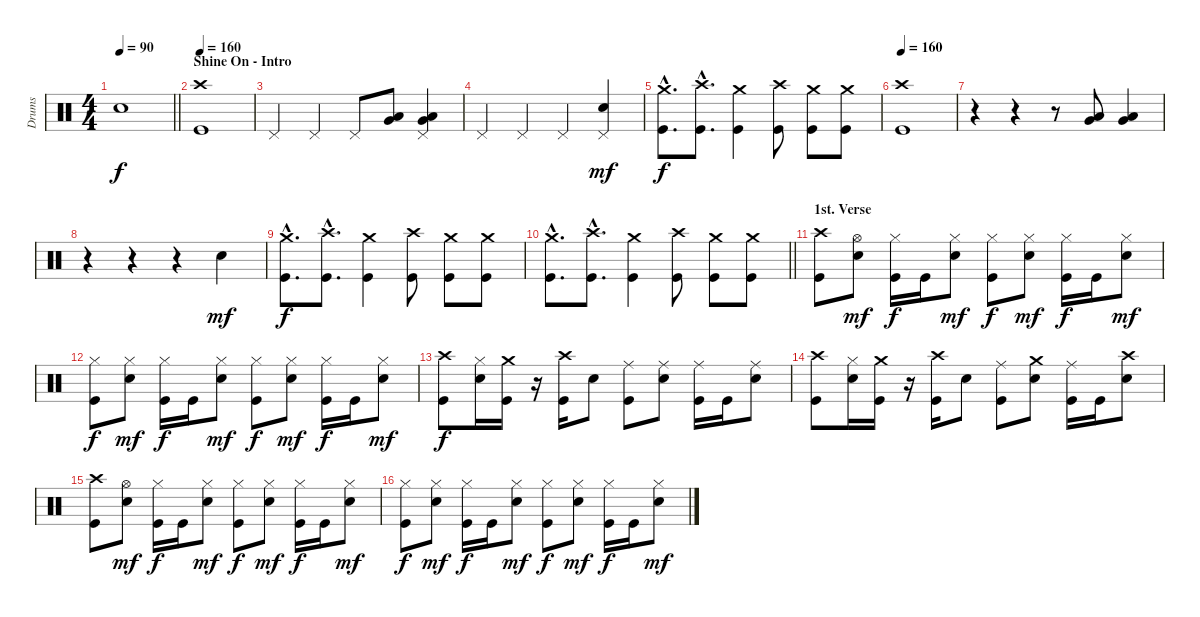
\track ("Drums" "Drums") {instrument percussion}
\staff {score}
\articulation defaults
\ts (4 4)
\tempo 90
\clef neutral
\barLineRight lightlight
\ks c "Snare (hit)"{t}.1{dy f}
|
\section ("" "Shine On - Intro")
\tempo 160
("Crash high (hit)" "Kick (hit)").1 |
"Pedal Hi-Hat (hit)".4 "Pedal Hi-Hat (hit)".4 "Pedal Hi-Hat (hit)".8 ("Low Tom (hit)" "Very Low Tom (hit)").8 ("Low Tom (hit)" "Very Low Tom (hit)" "Pedal Hi-Hat (hit)").4 |
"Pedal Hi-Hat (hit)".4 "Pedal Hi-Hat (hit)".4 "Pedal Hi-Hat (hit)".4 ("Snare (hit) 2" "Pedal Hi-Hat (hit)").4{dy mf} |
("Crash medium (hit)"{hac} "Kick (hit)"{hac}).8{d dy f} ("Crash high (hit)"{hac} "Kick (hit)"{hac}).8{d} ("Crash medium (hit)" "Kick (hit)").4 ("Crash high (hit)" "Kick (hit)").8 ("Crash medium (hit)" "Kick (hit)").8 ("Crash medium (hit)" "Kick (hit)").8 |
\tempo 160
("Crash high (hit)" "Kick (hit)").1 |
r.4 r.4 r.8 ("Low Tom (hit)" "Very Low Tom (hit)").8 ("Low Tom (hit)" "Very Low Tom (hit)").4 |
r.4 r.4 r.4 "Snare (hit) 2".4{dy mf} |
("Crash medium (hit)"{hac} "Kick (hit)"{hac}).8{d dy f} ("Crash high (hit)"{hac} "Kick (hit)"{hac}).8{d} ("Crash medium (hit)" "Kick (hit)").4 ("Crash high (hit)" "Kick (hit)").8 ("Crash medium (hit)" "Kick (hit)").8 ("Crash medium (hit)" "Kick (hit)").8 |
\barLineRight lightlight
("Crash medium (hit)"{hac} "Kick (hit)"{hac}).8{d} ("Crash high (hit)"{hac} "Kick (hit)"{hac}).8{d} ("Crash medium (hit)" "Kick (hit)").4 ("Crash high (hit)" "Kick (hit)").8 ("Crash medium (hit)" "Kick (hit)").8 ("Crash medium (hit)" "Kick (hit)").8 |
\section ("" "1st. Verse")
("Crash high (hit)" "Kick (hit)").8 ("Hi-Hat (open)" "Snare (hit) 2").8{dy mf} ("Hi-Hat (closed)" "Kick (hit)").16{dy f} "Kick (hit)".16 ("Hi-Hat (closed)" "Snare (hit) 2").8{dy mf} ("Hi-Hat (closed)" "Kick (hit)").8{dy f} ("Hi-Hat (closed)" "Snare (hit) 2").8{dy mf} ("Hi-Hat (closed)" "Kick (hit)").16{dy f} "Kick (hit)".16 ("Hi-Hat (closed)" "Snare (hit) 2").8{dy mf} |
("Hi-Hat (closed)" "Kick (hit)").8{dy f} ("Hi-Hat (closed)" "Snare (hit) 2").8{dy mf} ("Hi-Hat (closed)" "Kick (hit)").16{dy f} "Kick (hit)".16 ("Hi-Hat (closed)" "Snare (hit) 2").8{dy mf} ("Hi-Hat (closed)" "Kick (hit)").8{dy f} ("Hi-Hat (closed)" "Snare (hit) 2").8{dy mf} ("Hi-Hat (closed)" "Kick (hit)").16{dy f} "Kick (hit)".16 ("Hi-Hat (closed)" "Snare (hit) 2").8{dy mf} |
("Crash high (hit)" "Kick (hit)").8{dy f} ("Hi-Hat (closed)" "Snare (hit) 2").16 ("Crash medium (hit)" "Kick (hit)").16 r.16 ("Crash high (hit)" "Kick (hit)").16 "Snare (hit) 2".8 ("Ride (middle)" "Kick (hit)").8 ("Ride (middle)" "Snare (hit) 2").8 ("Ride (middle)" "Kick (hit)").16 "Kick (hit)".16 ("Ride (middle)" "Snare (hit) 2").8 |
("Crash high (hit)" "Kick (hit)").8 ("Hi-Hat (closed)" "Snare (hit) 2").16 ("Crash medium (hit)" "Kick (hit)").16 r.16 ("Crash high (hit)" "Kick (hit)").16 "Snare (hit) 2".8 ("Ride (middle)" "Kick (hit)").8 ("Crash medium (hit)" "Snare (hit) 2").8 ("Ride (middle)" "Kick (hit)").16 "Kick (hit)".16 ("Crash high (hit)" "Snare (hit) 2").8 |
("Crash high (hit)" "Kick (hit)").8 ("Hi-Hat (open)" "Snare (hit) 2").8{dy mf} ("Hi-Hat (closed)" "Kick (hit)").16{dy f} "Kick (hit)".16 ("Hi-Hat (closed)" "Snare (hit) 2").8{dy mf} ("Hi-Hat (closed)" "Kick (hit)").8{dy f} ("Hi-Hat (closed)" "Snare (hit) 2").8{dy mf} ("Hi-Hat (closed)" "Kick (hit)").16{dy f} "Kick (hit)".16 ("Hi-Hat (closed)" "Snare (hit) 2").8{dy mf} |
("Hi-Hat (closed)" "Kick (hit)").8{dy f} ("Hi-Hat (closed)" "Snare (hit) 2").8{dy mf} ("Hi-Hat (closed)" "Kick (hit)").16{dy f} "Kick (hit)".16 ("Hi-Hat (closed)" "Snare (hit) 2").8{dy mf} ("Hi-Hat (closed)" "Kick (hit)").8{dy f} ("Hi-Hat (closed)" "Snare (hit) 2").8{dy mf} ("Hi-Hat (closed)" "Kick (hit)").16{dy f} "Kick (hit)".16 ("Hi-Hat (closed)" "Snare (hit) 2").8{dy mf}
